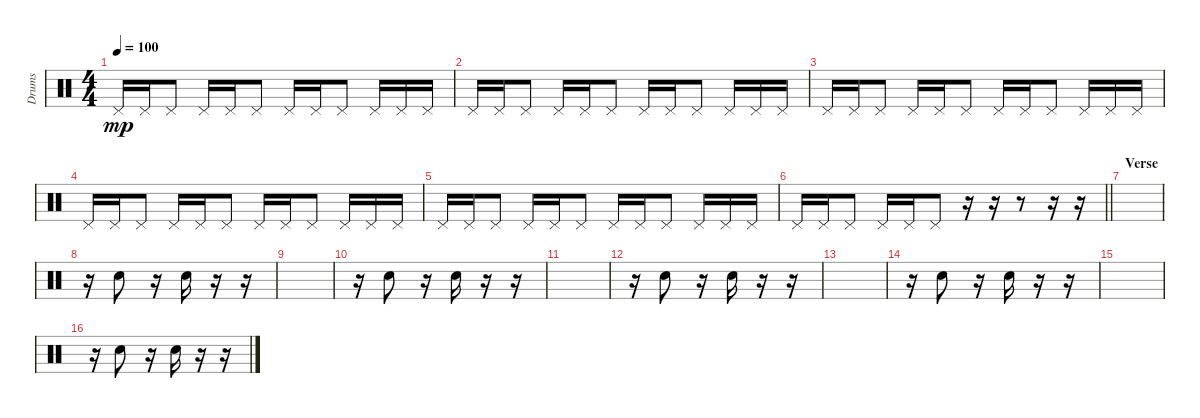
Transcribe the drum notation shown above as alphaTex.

\track ("Drums" "Drums") {instrument percussion}
\staff {score}
\articulation defaults
\ts (4 4)
\tempo 100
\clef neutral
\ks c "Pedal Hi-Hat (hit)".16{dy mp} "Pedal Hi-Hat (hit)".16 "Pedal Hi-Hat (hit)".8 "Pedal Hi-Hat (hit)".16 "Pedal Hi-Hat (hit)".16 "Pedal Hi-Hat (hit)".8 "Pedal Hi-Hat (hit)".16 "Pedal Hi-Hat (hit)".16 "Pedal Hi-Hat (hit)".8 "Pedal Hi-Hat (hit)".16 "Pedal Hi-Hat (hit)".16 "Pedal Hi-Hat (hit)".16
|
"Pedal Hi-Hat (hit)".16 "Pedal Hi-Hat (hit)".16 "Pedal Hi-Hat (hit)".8 "Pedal Hi-Hat (hit)".16 "Pedal Hi-Hat (hit)".16 "Pedal Hi-Hat (hit)".8 "Pedal Hi-Hat (hit)".16 "Pedal Hi-Hat (hit)".16 "Pedal Hi-Hat (hit)".8 "Pedal Hi-Hat (hit)".16 "Pedal Hi-Hat (hit)".16 "Pedal Hi-Hat (hit)".16 |
"Pedal Hi-Hat (hit)".16 "Pedal Hi-Hat (hit)".16 "Pedal Hi-Hat (hit)".8 "Pedal Hi-Hat (hit)".16 "Pedal Hi-Hat (hit)".16 "Pedal Hi-Hat (hit)".8 "Pedal Hi-Hat (hit)".16 "Pedal Hi-Hat (hit)".16 "Pedal Hi-Hat (hit)".8 "Pedal Hi-Hat (hit)".16 "Pedal Hi-Hat (hit)".16 "Pedal Hi-Hat (hit)".16 |
"Pedal Hi-Hat (hit)".16 "Pedal Hi-Hat (hit)".16 "Pedal Hi-Hat (hit)".8 "Pedal Hi-Hat (hit)".16 "Pedal Hi-Hat (hit)".16 "Pedal Hi-Hat (hit)".8 "Pedal Hi-Hat (hit)".16 "Pedal Hi-Hat (hit)".16 "Pedal Hi-Hat (hit)".8 "Pedal Hi-Hat (hit)".16 "Pedal Hi-Hat (hit)".16 "Pedal Hi-Hat (hit)".16 |
"Pedal Hi-Hat (hit)".16 "Pedal Hi-Hat (hit)".16 "Pedal Hi-Hat (hit)".8 "Pedal Hi-Hat (hit)".16 "Pedal Hi-Hat (hit)".16 "Pedal Hi-Hat (hit)".8 "Pedal Hi-Hat (hit)".16 "Pedal Hi-Hat (hit)".16 "Pedal Hi-Hat (hit)".8 "Pedal Hi-Hat (hit)".16 "Pedal Hi-Hat (hit)".16 "Pedal Hi-Hat (hit)".16 |
\barLineRight lightlight "Pedal Hi-Hat (hit)".16 "Pedal Hi-Hat (hit)".16 "Pedal Hi-Hat (hit)".8 "Pedal Hi-Hat (hit)".16 "Pedal Hi-Hat (hit)".16 "Pedal Hi-Hat (hit)".8
r.16 r.16 r.8 r.16 r.16 |
\section ("" "Verse")
|
r.16 "Electric Snare (hit)".8 r.16 "Electric Snare (hit)".16 r.16 r.16 |
|
r.16 "Electric Snare (hit)".8 r.16 "Electric Snare (hit)".16 r.16 r.16 |
|
r.16 "Electric Snare (hit)".8 r.16 "Electric Snare (hit)".16 r.16 r.16 |
|
r.16 "Electric Snare (hit)".8 r.16 "Electric Snare (hit)".16 r.16 r.16 |
|
r.16 "Electric Snare (hit)".8 r.16 "Electric Snare (hit)".16 r.16 r.16
